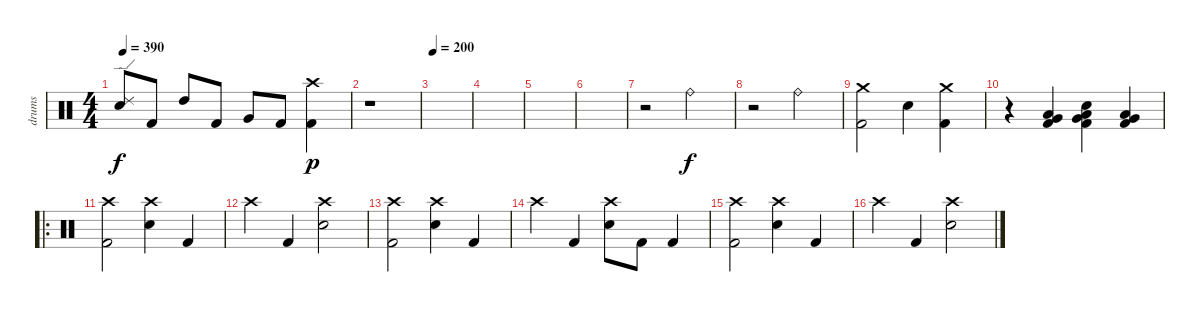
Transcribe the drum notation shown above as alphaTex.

\track ("drums" "drums") {instrument percussion}
\staff {score}
\articulation defaults
\ts (4 4)
\tempo 390
\clef neutral
\ks c
("Ride (edge) 2" "Electric Snare (hit)").8{dy f} "Kick (hit) 2".8 "High Tom (hit)".8 "Kick (hit) 2".8 "Very Low Tom (hit)".8 "Kick (hit) 2".8 ("Crash high (hit)" "Kick (hit) 2").4{dy p} |
r.1 |
\tempo 200
|
|
|
|
r.2 "Ride (bell)".2{dy f} |
r.2 "Ride (bell)".2 |
("Crash medium (hit)" "Kick (hit) 2").2 "Electric Snare (hit)".4 ("Crash medium (hit)" "Kick (hit) 2").4 |
r.4 ("Kick (hit) 2" "Low Floor Tom (hit)" "Very Low Tom (hit)").4 ("Electric Snare (hit)" "Kick (hit) 2" "Low Floor Tom (hit)" "Very Low Tom (hit)").4 ("Kick (hit) 2" "Low Floor Tom (hit)" "Very Low Tom (hit)").4 |
\ro
("Crash high (hit)" "Kick (hit) 2").2 ("Crash high (hit)" "Electric Snare (hit)").4 "Kick (hit) 2".4 |
"Crash high (hit)".4 "Kick (hit) 2".4 ("Crash high (hit)" "Electric Snare (hit)").2 |
("Crash high (hit)" "Kick (hit) 2").2 ("Crash high (hit)" "Electric Snare (hit)").4 "Kick (hit) 2".4 |
"Crash high (hit)".4 "Kick (hit) 2".4 ("Crash high (hit)" "Electric Snare (hit)").8 "Kick (hit) 2".8 "Kick (hit) 2".4 |
("Crash high (hit)" "Kick (hit) 2").2 ("Crash high (hit)" "Electric Snare (hit)").4 "Kick (hit) 2".4 |
"Crash high (hit)".4 "Kick (hit) 2".4 ("Crash high (hit)" "Electric Snare (hit)").2
